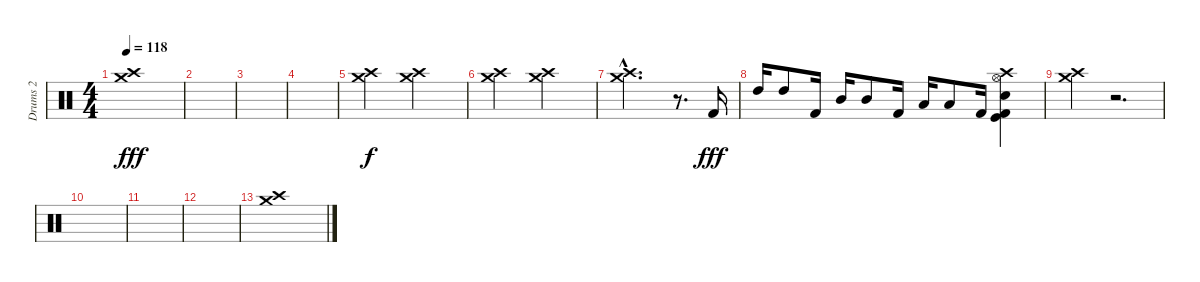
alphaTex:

\track ("Drums 2" "Drums 2") {instrument percussion}
\staff {score}
\articulation defaults
\ts (4 4)
\tempo 118
\clef neutral
\ks c
("Crash medium (hit)" "Crash high (hit)").1{dy fff} |
|
|
|
("Crash medium (hit)" "Crash high (hit)").2{dy f} ("Crash medium (hit)" "Crash high (hit)").2 |
("Crash medium (hit)" "Crash high (hit)").2 ("Crash medium (hit)" "Crash high (hit)").2 |
("Crash medium (hit)"{hac} "Crash high (hit)"{hac}).2{d} r.8{d volume 16} "Kick (hit) 2".16{dy fff} |
"High Tom (hit)".16{balance 0} "High Tom (hit)".8 "Kick (hit) 2".16 "Mid Tom (hit)".16{balance 16} "Mid Tom (hit)".8 "Kick (hit) 2".16 "Low Tom (hit)".16{balance 8} "Low Tom (hit)".8 "Kick (hit) 2".16 ("Hi-Hat (open)" "Electric Snare (hit)" "Crash high (hit)" "Kick (hit)" "Kick (hit) 2").4 |
("Crash medium (hit)" "Crash high (hit)").4{volume 12} r.2{d} |
|
|
|
("Crash medium (hit)" "Crash high (hit)").1
